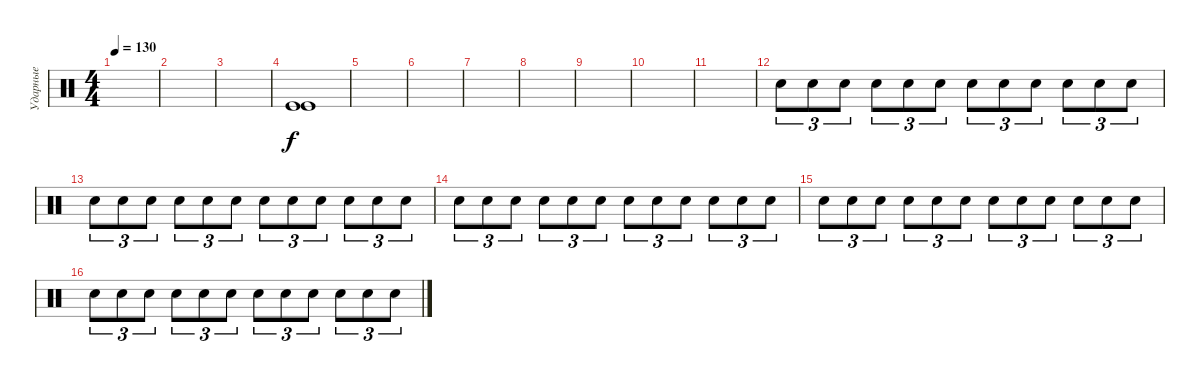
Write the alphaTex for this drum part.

\track ("Ударные" "Ударные") {instrument percussion}
\staff {score}
\articulation defaults
\ts (4 4)
\tempo 130
\clef neutral
\ks c
|
|
|
("Kick (hit)" "Kick (hit)").1 |
|
|
|
|
|
|
|
"Electric Snare (hit)".8{tu (3 2) volume 5} "Electric Snare (hit)".8{tu (3 2)} "Electric Snare (hit)".8{tu (3 2)} "Electric Snare (hit)".8{tu (3 2)} "Electric Snare (hit)".8{tu (3 2)} "Electric Snare (hit)".8{tu (3 2)} "Electric Snare (hit)".8{tu (3 2)} "Electric Snare (hit)".8{tu (3 2)} "Electric Snare (hit)".8{tu (3 2)} "Electric Snare (hit)".8{tu (3 2)} "Electric Snare (hit)".8{tu (3 2)} "Electric Snare (hit)".8{tu (3 2)} |
"Electric Snare (hit)".8{tu (3 2) volume 7} "Electric Snare (hit)".8{tu (3 2)} "Electric Snare (hit)".8{tu (3 2)} "Electric Snare (hit)".8{tu (3 2)} "Electric Snare (hit)".8{tu (3 2)} "Electric Snare (hit)".8{tu (3 2)} "Electric Snare (hit)".8{tu (3 2)} "Electric Snare (hit)".8{tu (3 2)} "Electric Snare (hit)".8{tu (3 2)} "Electric Snare (hit)".8{tu (3 2)} "Electric Snare (hit)".8{tu (3 2)} "Electric Snare (hit)".8{tu (3 2)} |
"Electric Snare (hit)".8{tu (3 2) volume 7} "Electric Snare (hit)".8{tu (3 2)} "Electric Snare (hit)".8{tu (3 2)} "Electric Snare (hit)".8{tu (3 2)} "Electric Snare (hit)".8{tu (3 2)} "Electric Snare (hit)".8{tu (3 2)} "Electric Snare (hit)".8{tu (3 2)} "Electric Snare (hit)".8{tu (3 2)} "Electric Snare (hit)".8{tu (3 2)} "Electric Snare (hit)".8{tu (3 2)} "Electric Snare (hit)".8{tu (3 2)} "Electric Snare (hit)".8{tu (3 2)} |
"Electric Snare (hit)".8{tu (3 2) volume 8} "Electric Snare (hit)".8{tu (3 2)} "Electric Snare (hit)".8{tu (3 2)} "Electric Snare (hit)".8{tu (3 2)} "Electric Snare (hit)".8{tu (3 2)} "Electric Snare (hit)".8{tu (3 2)} "Electric Snare (hit)".8{tu (3 2)} "Electric Snare (hit)".8{tu (3 2)} "Electric Snare (hit)".8{tu (3 2)} "Electric Snare (hit)".8{tu (3 2)} "Electric Snare (hit)".8{tu (3 2)} "Electric Snare (hit)".8{tu (3 2)} |
"Electric Snare (hit)".8{tu (3 2) volume 8} "Electric Snare (hit)".8{tu (3 2)} "Electric Snare (hit)".8{tu (3 2)} "Electric Snare (hit)".8{tu (3 2)} "Electric Snare (hit)".8{tu (3 2)} "Electric Snare (hit)".8{tu (3 2)} "Electric Snare (hit)".8{tu (3 2)} "Electric Snare (hit)".8{tu (3 2)} "Electric Snare (hit)".8{tu (3 2)} "Electric Snare (hit)".8{tu (3 2)} "Electric Snare (hit)".8{tu (3 2)} "Electric Snare (hit)".8{tu (3 2)}
